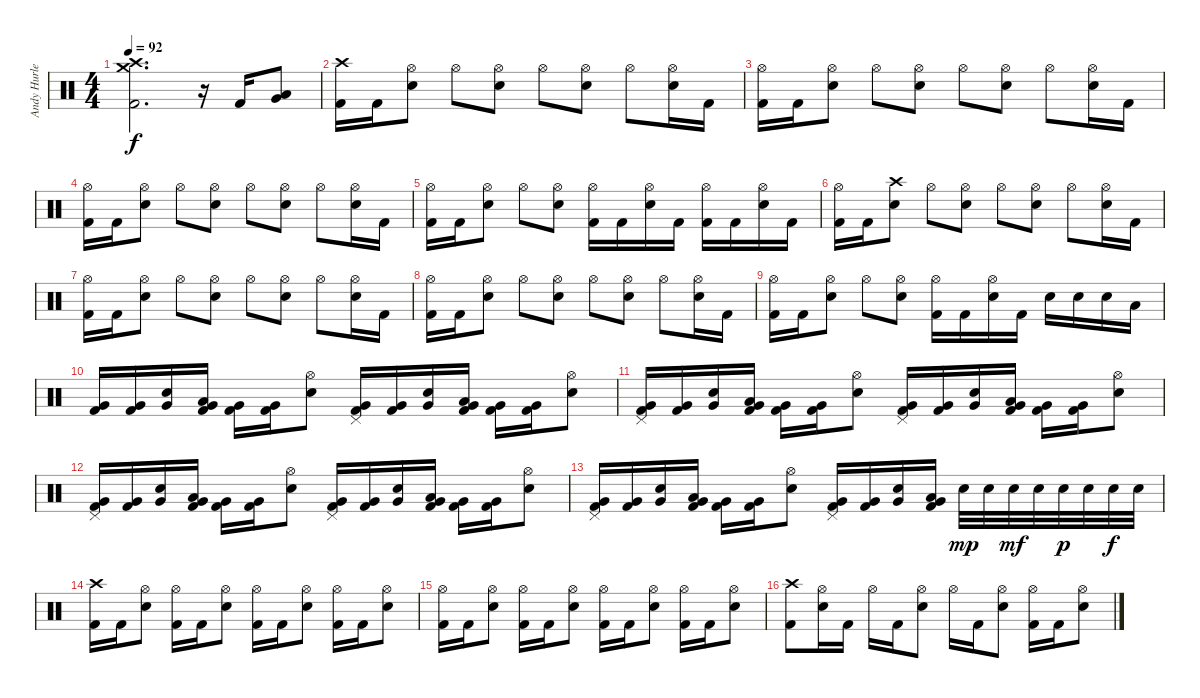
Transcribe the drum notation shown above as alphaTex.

\track ("Andy Hurley" "Andy Hurle") {instrument percussion}
\staff {score}
\articulation defaults
\ts (4 4)
\tempo 92
\clef neutral
\ks c
("Crash high (hit)" "Crash medium (hit)" "Kick (hit) 2").2{d dy f} r.16 "Kick (hit) 2".16 ("Low Tom (hit)" "Very Low Tom (hit)").8 |
("Crash high (hit)" "Kick (hit) 2").16 "Kick (hit) 2".16 ("Hi-Hat (open)" "Snare (hit) 2").8 "Hi-Hat (open)".8 ("Hi-Hat (open)" "Snare (hit) 2").8 "Hi-Hat (open)".8 ("Hi-Hat (open)" "Snare (hit) 2").8 "Hi-Hat (open)".8 ("Hi-Hat (open)" "Snare (hit) 2").16 "Kick (hit) 2".16 |
("Hi-Hat (open)" "Kick (hit) 2").16 "Kick (hit) 2".16 ("Hi-Hat (open)" "Snare (hit) 2").8 "Hi-Hat (open)".8 ("Hi-Hat (open)" "Snare (hit) 2").8 "Hi-Hat (open)".8 ("Hi-Hat (open)" "Snare (hit) 2").8 "Hi-Hat (open)".8 ("Hi-Hat (open)" "Snare (hit) 2").16 "Kick (hit) 2".16 |
("Hi-Hat (open)" "Kick (hit) 2").16 "Kick (hit) 2".16 ("Hi-Hat (open)" "Snare (hit) 2").8 "Hi-Hat (open)".8 ("Hi-Hat (open)" "Snare (hit) 2").8 "Hi-Hat (open)".8 ("Hi-Hat (open)" "Snare (hit) 2").8 "Hi-Hat (open)".8 ("Hi-Hat (open)" "Snare (hit) 2").16 "Kick (hit) 2".16 |
("Hi-Hat (open)" "Kick (hit) 2").16 "Kick (hit) 2".16 ("Hi-Hat (open)" "Snare (hit) 2").8 "Hi-Hat (open)".8 ("Hi-Hat (open)" "Snare (hit) 2").8 ("Hi-Hat (open)" "Kick (hit) 2").16 "Kick (hit) 2".16 ("Hi-Hat (open)" "Snare (hit) 2").16 "Kick (hit) 2".16 ("Hi-Hat (open)" "Kick (hit) 2").16 "Kick (hit) 2".16 ("Hi-Hat (open)" "Snare (hit) 2").16 "Kick (hit) 2".16 |
("Hi-Hat (open)" "Kick (hit) 2").16 "Kick (hit) 2".16 ("Crash high (hit)" "Snare (hit) 2").8 "Hi-Hat (open)".8 ("Hi-Hat (open)" "Snare (hit) 2").8 "Hi-Hat (open)".8 ("Hi-Hat (open)" "Snare (hit) 2").8 "Hi-Hat (open)".8 ("Hi-Hat (open)" "Snare (hit) 2").16 "Kick (hit) 2".16 |
("Hi-Hat (open)" "Kick (hit) 2").16 "Kick (hit) 2".16 ("Hi-Hat (open)" "Snare (hit) 2").8 "Hi-Hat (open)".8 ("Hi-Hat (open)" "Snare (hit) 2").8 "Hi-Hat (open)".8 ("Hi-Hat (open)" "Snare (hit) 2").8 "Hi-Hat (open)".8 ("Hi-Hat (open)" "Snare (hit) 2").16 "Kick (hit) 2".16 |
("Hi-Hat (open)" "Kick (hit) 2").16 "Kick (hit) 2".16 ("Hi-Hat (open)" "Snare (hit) 2").8 "Hi-Hat (open)".8 ("Hi-Hat (open)" "Snare (hit) 2").8 "Hi-Hat (open)".8 ("Hi-Hat (open)" "Snare (hit) 2").8 "Hi-Hat (open)".8 ("Hi-Hat (open)" "Snare (hit) 2").16 "Kick (hit) 2".16 |
("Hi-Hat (open)" "Kick (hit) 2").16 "Kick (hit) 2".16 ("Hi-Hat (open)" "Snare (hit) 2").8 "Hi-Hat (open)".8 ("Hi-Hat (open)" "Snare (hit) 2").8 ("Hi-Hat (open)" "Kick (hit) 2").16 "Kick (hit) 2".16 ("Hi-Hat (open)" "Snare (hit) 2").16 "Kick (hit) 2".16 "Snare (hit) 2".16 "Snare (hit) 2".16 "Snare (hit) 2".16 "Low Tom (hit)".16 |
("Very Low Tom (hit)" "Kick (hit) 2").16 ("Very Low Tom (hit)" "Kick (hit) 2").16 ("Snare (hit) 2" "Very Low Tom (hit)").16 ("Low Tom (hit)" "Very Low Tom (hit)" "Kick (hit) 2").16 ("Very Low Tom (hit)" "Kick (hit) 2").16 ("Very Low Tom (hit)" "Kick (hit) 2").16 ("Hi-Hat (open)" "Snare (hit) 2").8 ("Pedal Hi-Hat (hit)" "Very Low Tom (hit)" "Kick (hit) 2").16 ("Very Low Tom (hit)" "Kick (hit) 2").16 ("Snare (hit) 2" "Very Low Tom (hit)").16 ("Low Tom (hit)" "Very Low Tom (hit)" "Kick (hit) 2").16 ("Very Low Tom (hit)" "Kick (hit) 2").16 ("Very Low Tom (hit)" "Kick (hit) 2").16 ("Hi-Hat (open)" "Snare (hit) 2").8 |
("Pedal Hi-Hat (hit)" "Very Low Tom (hit)" "Kick (hit) 2").16 ("Very Low Tom (hit)" "Kick (hit) 2").16 ("Snare (hit) 2" "Very Low Tom (hit)").16 ("Low Tom (hit)" "Very Low Tom (hit)" "Kick (hit) 2").16 ("Very Low Tom (hit)" "Kick (hit) 2").16 ("Very Low Tom (hit)" "Kick (hit) 2").16 ("Hi-Hat (open)" "Snare (hit) 2").8 ("Pedal Hi-Hat (hit)" "Very Low Tom (hit)" "Kick (hit) 2").16 ("Very Low Tom (hit)" "Kick (hit) 2").16 ("Snare (hit) 2" "Very Low Tom (hit)").16 ("Low Tom (hit)" "Very Low Tom (hit)" "Kick (hit) 2").16 ("Very Low Tom (hit)" "Kick (hit) 2").16 ("Very Low Tom (hit)" "Kick (hit) 2").16 ("Hi-Hat (open)" "Snare (hit) 2").8 |
("Pedal Hi-Hat (hit)" "Very Low Tom (hit)" "Kick (hit) 2").16 ("Very Low Tom (hit)" "Kick (hit) 2").16 ("Snare (hit) 2" "Very Low Tom (hit)").16 ("Low Tom (hit)" "Very Low Tom (hit)" "Kick (hit) 2").16 ("Very Low Tom (hit)" "Kick (hit) 2").16 ("Very Low Tom (hit)" "Kick (hit) 2").16 ("Hi-Hat (open)" "Snare (hit) 2").8 ("Pedal Hi-Hat (hit)" "Very Low Tom (hit)" "Kick (hit) 2").16 ("Very Low Tom (hit)" "Kick (hit) 2").16 ("Snare (hit) 2" "Very Low Tom (hit)").16 ("Low Tom (hit)" "Very Low Tom (hit)" "Kick (hit) 2").16 ("Very Low Tom (hit)" "Kick (hit) 2").16 ("Very Low Tom (hit)" "Kick (hit) 2").16 ("Hi-Hat (open)" "Snare (hit) 2").8 |
("Pedal Hi-Hat (hit)" "Very Low Tom (hit)" "Kick (hit) 2").16 ("Very Low Tom (hit)" "Kick (hit) 2").16 ("Snare (hit) 2" "Very Low Tom (hit)").16 ("Low Tom (hit)" "Very Low Tom (hit)" "Kick (hit) 2").16 ("Very Low Tom (hit)" "Kick (hit) 2").16 ("Very Low Tom (hit)" "Kick (hit) 2").16 ("Hi-Hat (open)" "Snare (hit) 2").8 ("Pedal Hi-Hat (hit)" "Very Low Tom (hit)" "Kick (hit) 2").16 ("Very Low Tom (hit)" "Kick (hit) 2").16 ("Snare (hit) 2" "Very Low Tom (hit)").16 ("Low Tom (hit)" "Very Low Tom (hit)" "Kick (hit) 2").16 "Snare (hit) 2".32{dy mp} "Snare (hit) 2".32 "Snare (hit) 2".32{dy mf} "Snare (hit) 2".32 "Snare (hit) 2".32{dy p} "Snare (hit) 2".32 "Snare (hit) 2".32{dy f} "Snare (hit) 2".32 |
("Crash high (hit)" "Kick (hit) 2").16 "Kick (hit) 2".16 ("Hi-Hat (open)" "Snare (hit) 2").8 ("Hi-Hat (open)" "Kick (hit) 2").16 "Kick (hit) 2".16 ("Hi-Hat (open)" "Snare (hit) 2").8 ("Hi-Hat (open)" "Kick (hit) 2").16 "Kick (hit) 2".16 ("Hi-Hat (open)" "Snare (hit) 2").8 ("Hi-Hat (open)" "Kick (hit) 2").16 "Kick (hit) 2".16 ("Hi-Hat (open)" "Snare (hit) 2").8 |
("Hi-Hat (open)" "Kick (hit) 2").16 "Kick (hit) 2".16 ("Hi-Hat (open)" "Snare (hit) 2").8 ("Hi-Hat (open)" "Kick (hit) 2").16 "Kick (hit) 2".16 ("Hi-Hat (open)" "Snare (hit) 2").8 ("Hi-Hat (open)" "Kick (hit) 2").16 "Kick (hit) 2".16 ("Hi-Hat (open)" "Snare (hit) 2").8 ("Hi-Hat (open)" "Kick (hit) 2").16 "Kick (hit) 2".16 ("Hi-Hat (open)" "Snare (hit) 2").8 |
("Crash high (hit)" "Kick (hit) 2").8 ("Hi-Hat (open)" "Snare (hit) 2").16 "Kick (hit) 2".16 "Hi-Hat (open)".16 "Kick (hit) 2".16 ("Hi-Hat (open)" "Snare (hit) 2").8 "Hi-Hat (open)".16 "Kick (hit) 2".16 ("Hi-Hat (open)" "Snare (hit) 2").8 ("Hi-Hat (open)" "Kick (hit) 2").16 "Kick (hit) 2".16 ("Hi-Hat (open)" "Snare (hit) 2").8
